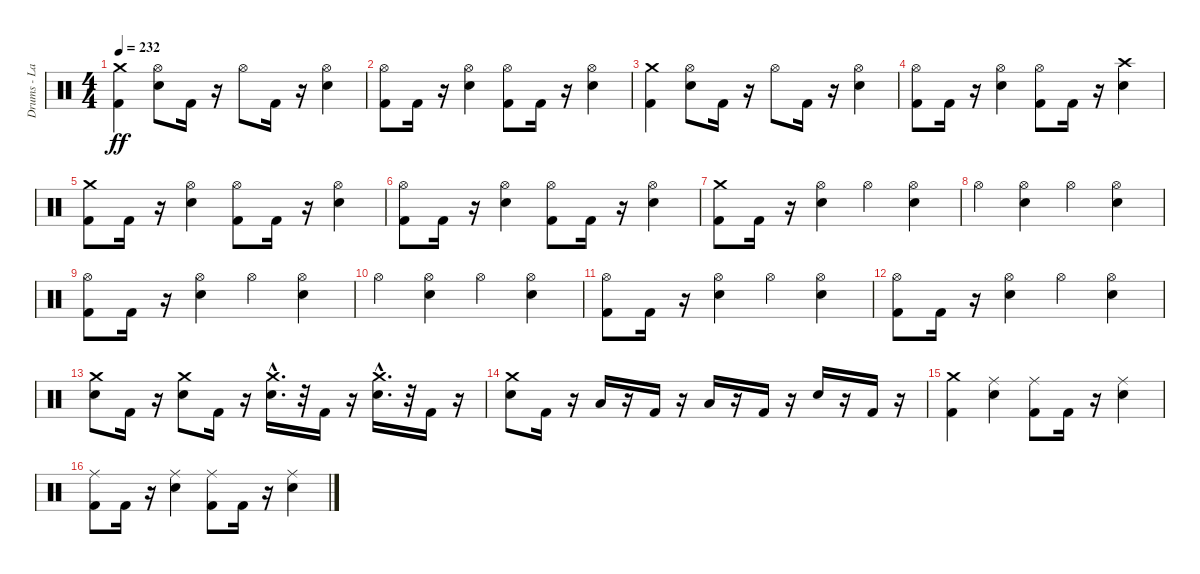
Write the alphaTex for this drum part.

\track ("Drums - Larzon" "Drums - La") {instrument percussion}
\staff {score}
\articulation defaults
\ts (4 4)
\tempo 232
\clef neutral
\ks c
("Kick (hit) 2" "Crash medium (hit)").4{dy ff} ("Electric Snare (hit)" "Hi-Hat (open)").8 "Kick (hit) 2".16 r.16 "Hi-Hat (open)".8 "Kick (hit) 2".16 r.16 ("Electric Snare (hit)" "Hi-Hat (open)").4 |
("Kick (hit) 2" "Hi-Hat (open)").8 "Kick (hit) 2".16 r.16 ("Electric Snare (hit)" "Hi-Hat (open)").4 ("Kick (hit) 2" "Hi-Hat (open)").8 "Kick (hit) 2".16 r.16 ("Electric Snare (hit)" "Hi-Hat (open)").4 |
("Kick (hit) 2" "Crash medium (hit)").4 ("Electric Snare (hit)" "Hi-Hat (open)").8 "Kick (hit) 2".16 r.16 "Hi-Hat (open)".8 "Kick (hit) 2".16 r.16 ("Electric Snare (hit)" "Hi-Hat (open)").4 |
("Kick (hit) 2" "Hi-Hat (open)").8 "Kick (hit) 2".16 r.16 ("Electric Snare (hit)" "Hi-Hat (open)").4 ("Kick (hit) 2" "Hi-Hat (open)").8 "Kick (hit) 2".16 r.16 ("Electric Snare (hit)" "Crash high (hit)").4 |
("Kick (hit) 2" "Crash medium (hit)").8 "Kick (hit) 2".16 r.16 ("Electric Snare (hit)" "Hi-Hat (open)").4 ("Kick (hit) 2" "Hi-Hat (open)").8 "Kick (hit) 2".16 r.16 ("Electric Snare (hit)" "Hi-Hat (open)").4 |
("Hi-Hat (open)" "Kick (hit) 2").8 "Kick (hit) 2".16 r.16 ("Electric Snare (hit)" "Hi-Hat (open)").4 ("Kick (hit) 2" "Hi-Hat (open)").8 "Kick (hit) 2".16 r.16 ("Electric Snare (hit)" "Hi-Hat (open)").4 |
("Kick (hit) 2" "Crash medium (hit)").8 "Kick (hit) 2".16 r.16 ("Electric Snare (hit)" "Hi-Hat (open)").4 "Hi-Hat (open)".4 ("Electric Snare (hit)" "Hi-Hat (open)").4 |
"Hi-Hat (open)".4 ("Electric Snare (hit)" "Hi-Hat (open)").4 "Hi-Hat (open)".4 ("Electric Snare (hit)" "Hi-Hat (open)").4 |
("Kick (hit) 2" "Hi-Hat (open)").8 "Kick (hit) 2".16 r.16 ("Electric Snare (hit)" "Hi-Hat (open)").4 "Hi-Hat (open)".4 ("Electric Snare (hit)" "Hi-Hat (open)").4 |
"Hi-Hat (open)".4 ("Electric Snare (hit)" "Hi-Hat (open)").4 "Hi-Hat (open)".4 ("Electric Snare (hit)" "Hi-Hat (open)").4 |
("Kick (hit) 2" "Hi-Hat (open)").8 "Kick (hit) 2".16 r.16 ("Electric Snare (hit)" "Hi-Hat (open)").4 "Hi-Hat (open)".4 ("Electric Snare (hit)" "Hi-Hat (open)").4 |
("Kick (hit) 2" "Hi-Hat (open)").8 "Kick (hit) 2".16 r.16 ("Electric Snare (hit)" "Hi-Hat (open)").4 "Hi-Hat (open)".4 ("Electric Snare (hit)" "Hi-Hat (open)").4 |
("Electric Snare (hit)" "Crash medium (hit)").8 "Kick (hit) 2".16 r.16 ("Electric Snare (hit)" "Crash medium (hit)").8 "Kick (hit) 2".16 r.16 ("Electric Snare (hit)" "Crash medium (hit)"{hac}).16{d} r.32 "Kick (hit) 2".16 r.16 ("Electric Snare (hit)" "Crash medium (hit)"{hac}).16{d} r.32 "Kick (hit) 2".16 r.16 |
("Electric Snare (hit)" "Crash medium (hit)").8 "Kick (hit) 2".16 r.16 "Low Tom (hit)".16 r.16 "Kick (hit) 2".16 r.16 "Low Tom (hit)".16 r.16 "Kick (hit) 2".16 r.16 "Electric Snare (hit)".16 r.16 "Kick (hit) 2".16 r.16 |
("Kick (hit) 2" "Crash medium (hit)").4 ("Electric Snare (hit)" "Ride (middle)").4 ("Kick (hit) 2" "Ride (middle)").8 "Kick (hit) 2".16 r.16 ("Electric Snare (hit)" "Ride (middle)").4 |
("Kick (hit) 2" "Ride (middle)").8 "Kick (hit) 2".16 r.16 ("Electric Snare (hit)" "Ride (middle)").4 ("Kick (hit) 2" "Ride (middle)").8 "Kick (hit) 2".16 r.16 ("Electric Snare (hit)" "Ride (middle)").4
